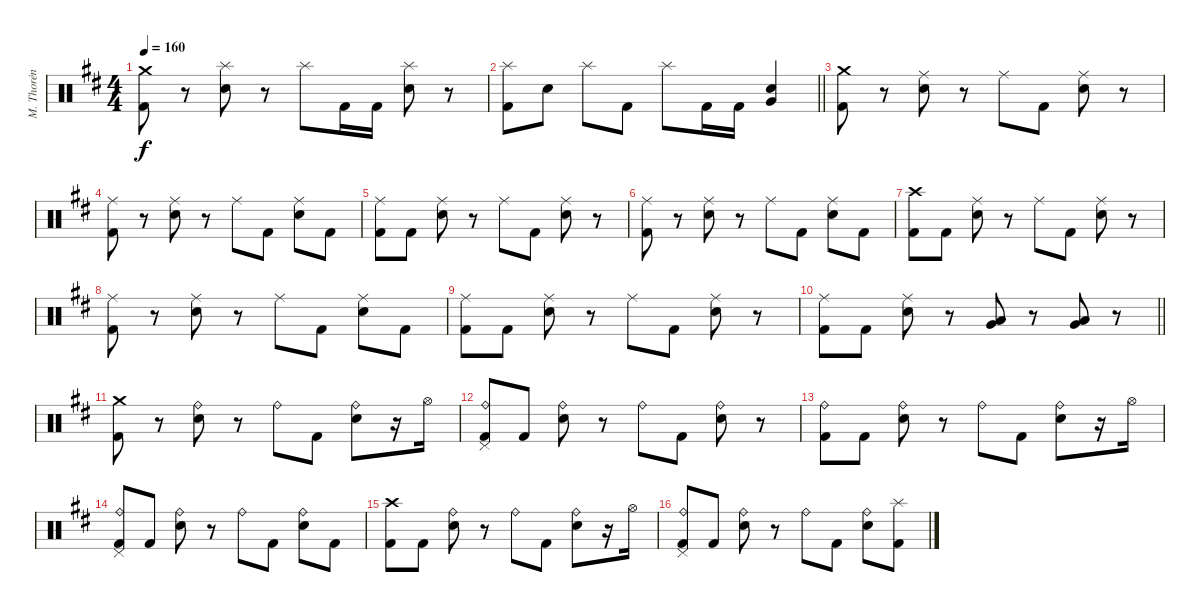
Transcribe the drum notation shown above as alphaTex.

\track ("M. Thorén (Drums)" "M. Thorén ") {instrument percussion}
\staff {score}
\articulation defaults
\ts (4 4)
\tempo 160
\clef neutral
\ks bminor
("Crash medium (hit)" "Kick (hit) 2").8{dy f} r.8 ("Splash (hit)" "Electric Snare (hit)").8 r.8 "Splash (hit)".8 "Kick (hit) 2".16 "Kick (hit) 2".16 ("Splash (hit)" "Electric Snare (hit)").8 r.8 |
\barLineRight lightlight
("Splash (hit)" "Kick (hit) 2").8 "Electric Snare (hit)".8 "Splash (hit)".8 "Kick (hit) 2".8 "Splash (hit)".8 "Kick (hit) 2".16 "Kick (hit) 2".16 ("Electric Snare (hit)" "Very Low Tom (hit)").4 |
("Crash medium (hit)" "Kick (hit) 2").8 r.8 ("Ride (middle)" "Electric Snare (hit)").8 r.8 "Ride (middle)".8 "Kick (hit) 2".8 ("Ride (middle)" "Electric Snare (hit)").8 r.8 |
("Ride (middle)" "Kick (hit) 2").8 r.8 ("Ride (middle)" "Electric Snare (hit)").8 r.8 "Ride (middle)".8 "Kick (hit) 2".8 ("Ride (middle)" "Electric Snare (hit)").8 "Kick (hit) 2".8 |
("Ride (middle)" "Kick (hit) 2").8 "Kick (hit) 2".8 ("Ride (middle)" "Electric Snare (hit)").8 r.8 "Ride (middle)".8 "Kick (hit) 2".8 ("Ride (middle)" "Electric Snare (hit)").8 r.8 |
("Ride (middle)" "Kick (hit) 2").8 r.8 ("Ride (middle)" "Electric Snare (hit)").8 r.8 "Ride (middle)".8 "Kick (hit) 2".8 ("Ride (middle)" "Electric Snare (hit)").8 "Kick (hit) 2".8 |
("Crash high (hit)" "Kick (hit) 2").8 "Kick (hit) 2".8 ("Ride (middle)" "Electric Snare (hit)").8 r.8 "Ride (middle)".8 "Kick (hit) 2".8 ("Ride (middle)" "Electric Snare (hit)").8 r.8 |
("Ride (middle)" "Kick (hit) 2").8 r.8 ("Ride (middle)" "Electric Snare (hit)").8 r.8 "Ride (middle)".8 "Kick (hit) 2".8 ("Ride (middle)" "Electric Snare (hit)").8 "Kick (hit) 2".8 |
("Ride (middle)" "Kick (hit) 2").8 "Kick (hit) 2".8 ("Ride (middle)" "Electric Snare (hit)").8 r.8 "Ride (middle)".8 "Kick (hit) 2".8 ("Ride (middle)" "Electric Snare (hit)").8 r.8 |
\barLineRight lightlight
("Ride (middle)" "Kick (hit) 2").8 "Kick (hit) 2".8 ("Ride (middle)" "Electric Snare (hit)").8 r.8 ("Low Tom (hit)" "Very Low Tom (hit)").8 r.8 ("Very Low Tom (hit)" "Low Floor Tom (hit)").8 r.8 |
("Crash medium (hit)" "Kick (hit) 2").8 r.8 ("Ride (bell)" "Electric Snare (hit)").8 r.8 "Ride (bell)".8 "Kick (hit) 2".8 ("Ride (bell)" "Electric Snare (hit)").8 r.16 "Hi-Hat (open)".16 |
("Ride (bell)" "Pedal Hi-Hat (hit)" "Kick (hit) 2").8 "Kick (hit) 2".8 ("Ride (bell)" "Electric Snare (hit)").8 r.8 "Ride (bell)".8 "Kick (hit) 2".8 ("Ride (bell)" "Electric Snare (hit)").8 r.8 |
("Ride (bell)" "Kick (hit) 2").8 "Kick (hit) 2".8 ("Ride (bell)" "Electric Snare (hit)").8 r.8 "Ride (bell)".8 "Kick (hit) 2".8 ("Ride (bell)" "Electric Snare (hit)").8 r.16 "Hi-Hat (open)".16 |
("Ride (bell)" "Pedal Hi-Hat (hit)" "Kick (hit) 2").8 "Kick (hit) 2".8 ("Ride (bell)" "Electric Snare (hit)").8 r.8 "Ride (bell)".8 "Kick (hit) 2".8 ("Ride (bell)" "Electric Snare (hit)").8 "Kick (hit) 2".8 |
("Crash high (hit)" "Kick (hit) 2").8 "Kick (hit) 2".8 ("Ride (bell)" "Electric Snare (hit)").8 r.8 "Ride (bell)".8 "Kick (hit) 2".8 ("Ride (bell)" "Electric Snare (hit)").8 r.16 "Hi-Hat (open)".16 |
("Ride (bell)" "Pedal Hi-Hat (hit)" "Kick (hit) 2").8 "Kick (hit) 2".8 ("Ride (bell)" "Electric Snare (hit)").8 r.8 "Ride (bell)".8 "Kick (hit) 2".8 ("Ride (bell)" "Electric Snare (hit)").8 ("Splash (hit)" "Kick (hit) 2").8
